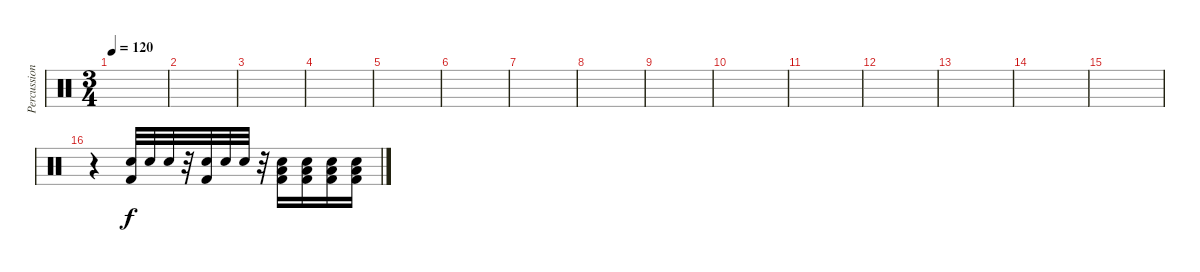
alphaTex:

\track ("Percussion" "Percussion") {instrument percussion}
\staff {score}
\articulation defaults
\ts (3 4)
\tempo 120
\clef neutral
\ks c
|
|
|
|
|
|
|
|
|
|
|
|
|
|
|
r.4 ("Electric Snare (hit)" "Kick (hit) 2").32 "Electric Snare (hit)".32 "Electric Snare (hit)".32 r.32 ("Electric Snare (hit)" "Kick (hit) 2").32 "Electric Snare (hit)".32 "Electric Snare (hit)".32 r.32 ("Low Tom (hit)" "Electric Snare (hit)" "Kick (hit) 2").16 ("Low Tom (hit)" "Electric Snare (hit)" "Kick (hit) 2").16 ("Low Tom (hit)" "Electric Snare (hit)" "Kick (hit) 2").16 ("Low Tom (hit)" "Electric Snare (hit)" "Kick (hit) 2").16
